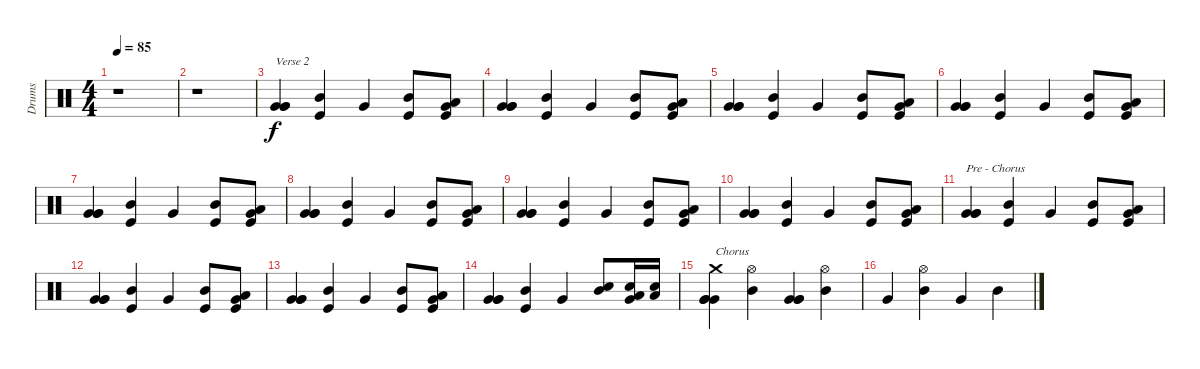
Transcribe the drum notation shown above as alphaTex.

\track ("Drums" "Drums") {instrument percussion}
\staff {score}
\articulation defaults
\ts (4 4)
\tempo 85
\clef neutral
\ks c
r.1{dy f} |
r.1 |
("Very Low Tom (hit)" "Very Low Tom (hit)" "Very Low Tom (hit)").4{txt "Verse 2"} ("Mid Tom (hit)" "Kick (hit)").4 "Very Low Tom (hit)".4 ("Mid Tom (hit)" "Kick (hit)").8 ("Very Low Tom (hit)" "Kick (hit)" "Low Tom (hit)").8 |
("Very Low Tom (hit)" "Very Low Tom (hit)" "Very Low Tom (hit)").4 ("Mid Tom (hit)" "Kick (hit)").4 "Very Low Tom (hit)".4 ("Mid Tom (hit)" "Kick (hit)").8 ("Very Low Tom (hit)" "Kick (hit)" "Low Tom (hit)").8 |
("Very Low Tom (hit)" "Very Low Tom (hit)" "Very Low Tom (hit)").4 ("Mid Tom (hit)" "Kick (hit)").4 "Very Low Tom (hit)".4 ("Mid Tom (hit)" "Kick (hit)").8 ("Very Low Tom (hit)" "Kick (hit)" "Low Tom (hit)").8 |
("Very Low Tom (hit)" "Very Low Tom (hit)" "Very Low Tom (hit)").4 ("Mid Tom (hit)" "Kick (hit)").4 "Very Low Tom (hit)".4 ("Mid Tom (hit)" "Kick (hit)").8 ("Very Low Tom (hit)" "Kick (hit)" "Low Tom (hit)").8 |
("Very Low Tom (hit)" "Very Low Tom (hit)" "Very Low Tom (hit)").4 ("Mid Tom (hit)" "Kick (hit)").4 "Very Low Tom (hit)".4 ("Mid Tom (hit)" "Kick (hit)").8 ("Very Low Tom (hit)" "Kick (hit)" "Low Tom (hit)").8 |
("Very Low Tom (hit)" "Very Low Tom (hit)" "Very Low Tom (hit)").4 ("Mid Tom (hit)" "Kick (hit)").4 "Very Low Tom (hit)".4 ("Mid Tom (hit)" "Kick (hit)").8 ("Very Low Tom (hit)" "Kick (hit)" "Low Tom (hit)").8 |
("Very Low Tom (hit)" "Very Low Tom (hit)" "Very Low Tom (hit)").4 ("Mid Tom (hit)" "Kick (hit)").4 "Very Low Tom (hit)".4 ("Mid Tom (hit)" "Kick (hit)").8 ("Very Low Tom (hit)" "Kick (hit)" "Low Tom (hit)").8 |
("Very Low Tom (hit)" "Very Low Tom (hit)" "Very Low Tom (hit)").4 ("Mid Tom (hit)" "Kick (hit)").4 "Very Low Tom (hit)".4 ("Mid Tom (hit)" "Kick (hit)").8 ("Very Low Tom (hit)" "Kick (hit)" "Low Tom (hit)").8 |
("Very Low Tom (hit)" "Very Low Tom (hit)" "Very Low Tom (hit)").4{txt "Pre - Chorus"} ("Mid Tom (hit)" "Kick (hit)").4 "Very Low Tom (hit)".4 ("Mid Tom (hit)" "Kick (hit)").8 ("Very Low Tom (hit)" "Kick (hit)" "Low Tom (hit)").8 |
("Very Low Tom (hit)" "Very Low Tom (hit)" "Very Low Tom (hit)").4 ("Mid Tom (hit)" "Kick (hit)").4 "Very Low Tom (hit)".4 ("Mid Tom (hit)" "Kick (hit)").8 ("Very Low Tom (hit)" "Kick (hit)" "Low Tom (hit)").8 |
("Very Low Tom (hit)" "Very Low Tom (hit)" "Very Low Tom (hit)").4 ("Mid Tom (hit)" "Kick (hit)").4 "Very Low Tom (hit)".4 ("Mid Tom (hit)" "Kick (hit)").8 ("Very Low Tom (hit)" "Kick (hit)" "Low Tom (hit)").8 |
("Very Low Tom (hit)" "Very Low Tom (hit)" "Very Low Tom (hit)").4 ("Mid Tom (hit)" "Kick (hit)").4 "Very Low Tom (hit)".4 ("Mid Tom (hit)" "Snare (hit) 2").8 ("Very Low Tom (hit)" "Snare (hit) 2" "Low Tom (hit)").16 ("Snare (hit) 2" "Low Tom (hit)").16 |
("Very Low Tom (hit)" "Very Low Tom (hit)" "Very Low Tom (hit)" "Crash medium (hit)").4{txt "Chorus"} ("Mid Tom (hit)" "Hi-Hat (open)").4 ("Very Low Tom (hit)" "Very Low Tom (hit)" "Very Low Tom (hit)").4 ("Mid Tom (hit)" "Hi-Hat (open)").4 |
"Very Low Tom (hit)".4 ("Mid Tom (hit)" "Hi-Hat (open)").4 "Very Low Tom (hit)".4 "Mid Tom (hit)".4
